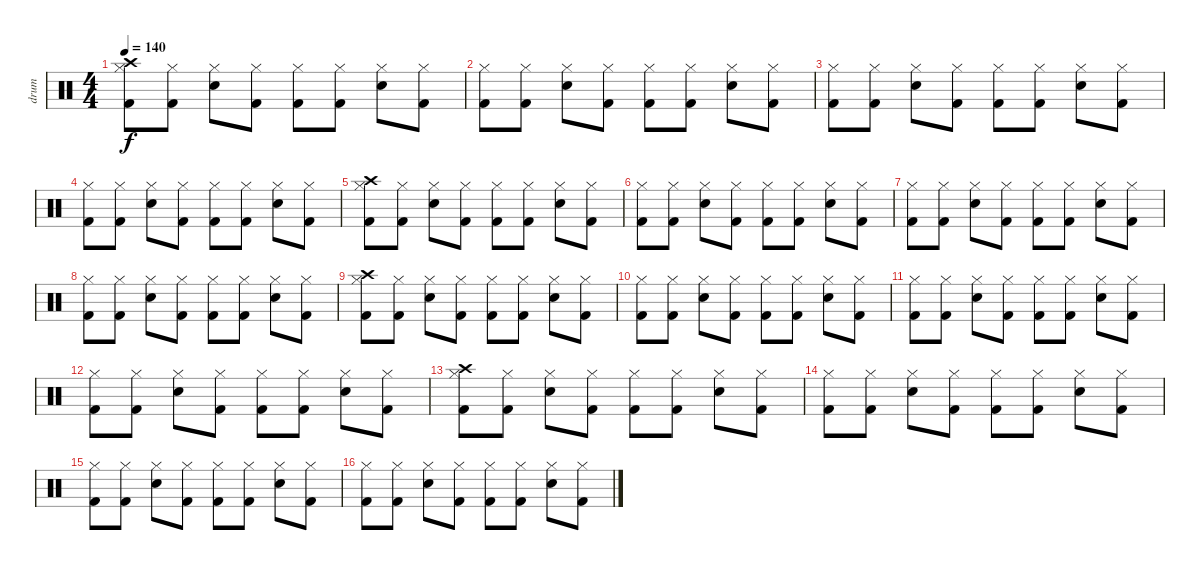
\track ("drum" "drum") {instrument percussion}
\staff {score}
\articulation defaults
\ts (4 4)
\tempo 140
\clef neutral
\ks c
("Crash high (hit)" "Hi-Hat (closed)" "Kick (hit) 2").8{dy f} ("Hi-Hat (closed)" "Kick (hit) 2").8 ("Hi-Hat (closed)" "Electric Snare (hit)").8 ("Hi-Hat (closed)" "Kick (hit) 2").8 ("Hi-Hat (closed)" "Kick (hit) 2").8 ("Hi-Hat (closed)" "Kick (hit) 2").8 ("Hi-Hat (closed)" "Electric Snare (hit)").8 ("Hi-Hat (closed)" "Kick (hit) 2").8 |
("Hi-Hat (closed)" "Kick (hit) 2").8 ("Hi-Hat (closed)" "Kick (hit) 2").8 ("Hi-Hat (closed)" "Electric Snare (hit)").8 ("Hi-Hat (closed)" "Kick (hit) 2").8 ("Hi-Hat (closed)" "Kick (hit) 2").8 ("Hi-Hat (closed)" "Kick (hit) 2").8 ("Hi-Hat (closed)" "Electric Snare (hit)").8 ("Hi-Hat (closed)" "Kick (hit) 2").8 |
("Hi-Hat (closed)" "Kick (hit) 2").8 ("Hi-Hat (closed)" "Kick (hit) 2").8 ("Hi-Hat (closed)" "Electric Snare (hit)").8 ("Hi-Hat (closed)" "Kick (hit) 2").8 ("Hi-Hat (closed)" "Kick (hit) 2").8 ("Hi-Hat (closed)" "Kick (hit) 2").8 ("Hi-Hat (closed)" "Electric Snare (hit)").8 ("Hi-Hat (closed)" "Kick (hit) 2").8 |
("Hi-Hat (closed)" "Kick (hit) 2").8 ("Hi-Hat (closed)" "Kick (hit) 2").8 ("Hi-Hat (closed)" "Electric Snare (hit)").8 ("Hi-Hat (closed)" "Kick (hit) 2").8 ("Hi-Hat (closed)" "Kick (hit) 2").8 ("Hi-Hat (closed)" "Kick (hit) 2").8 ("Hi-Hat (closed)" "Electric Snare (hit)").8 ("Hi-Hat (closed)" "Kick (hit) 2").8 |
("Crash high (hit)" "Hi-Hat (closed)" "Kick (hit) 2").8 ("Hi-Hat (closed)" "Kick (hit) 2").8 ("Hi-Hat (closed)" "Electric Snare (hit)").8 ("Hi-Hat (closed)" "Kick (hit) 2").8 ("Hi-Hat (closed)" "Kick (hit) 2").8 ("Hi-Hat (closed)" "Kick (hit) 2").8 ("Hi-Hat (closed)" "Electric Snare (hit)").8 ("Hi-Hat (closed)" "Kick (hit) 2").8 |
("Hi-Hat (closed)" "Kick (hit) 2").8 ("Hi-Hat (closed)" "Kick (hit) 2").8 ("Hi-Hat (closed)" "Electric Snare (hit)").8 ("Hi-Hat (closed)" "Kick (hit) 2").8 ("Hi-Hat (closed)" "Kick (hit) 2").8 ("Hi-Hat (closed)" "Kick (hit) 2").8 ("Hi-Hat (closed)" "Electric Snare (hit)").8 ("Hi-Hat (closed)" "Kick (hit) 2").8 |
("Hi-Hat (closed)" "Kick (hit) 2").8 ("Hi-Hat (closed)" "Kick (hit) 2").8 ("Hi-Hat (closed)" "Electric Snare (hit)").8 ("Hi-Hat (closed)" "Kick (hit) 2").8 ("Hi-Hat (closed)" "Kick (hit) 2").8 ("Hi-Hat (closed)" "Kick (hit) 2").8 ("Hi-Hat (closed)" "Electric Snare (hit)").8 ("Hi-Hat (closed)" "Kick (hit) 2").8 |
("Hi-Hat (closed)" "Kick (hit) 2").8 ("Hi-Hat (closed)" "Kick (hit) 2").8 ("Hi-Hat (closed)" "Electric Snare (hit)").8 ("Hi-Hat (closed)" "Kick (hit) 2").8 ("Hi-Hat (closed)" "Kick (hit) 2").8 ("Hi-Hat (closed)" "Kick (hit) 2").8 ("Hi-Hat (closed)" "Electric Snare (hit)").8 ("Hi-Hat (closed)" "Kick (hit) 2").8 |
("Crash high (hit)" "Hi-Hat (closed)" "Kick (hit) 2").8 ("Hi-Hat (closed)" "Kick (hit) 2").8 ("Hi-Hat (closed)" "Electric Snare (hit)").8 ("Hi-Hat (closed)" "Kick (hit) 2").8 ("Hi-Hat (closed)" "Kick (hit) 2").8 ("Hi-Hat (closed)" "Kick (hit) 2").8 ("Hi-Hat (closed)" "Electric Snare (hit)").8 ("Hi-Hat (closed)" "Kick (hit) 2").8 |
("Hi-Hat (closed)" "Kick (hit) 2").8 ("Hi-Hat (closed)" "Kick (hit) 2").8 ("Hi-Hat (closed)" "Electric Snare (hit)").8 ("Hi-Hat (closed)" "Kick (hit) 2").8 ("Hi-Hat (closed)" "Kick (hit) 2").8 ("Hi-Hat (closed)" "Kick (hit) 2").8 ("Hi-Hat (closed)" "Electric Snare (hit)").8 ("Hi-Hat (closed)" "Kick (hit) 2").8 |
("Hi-Hat (closed)" "Kick (hit) 2").8 ("Hi-Hat (closed)" "Kick (hit) 2").8 ("Hi-Hat (closed)" "Electric Snare (hit)").8 ("Hi-Hat (closed)" "Kick (hit) 2").8 ("Hi-Hat (closed)" "Kick (hit) 2").8 ("Hi-Hat (closed)" "Kick (hit) 2").8 ("Hi-Hat (closed)" "Electric Snare (hit)").8 ("Hi-Hat (closed)" "Kick (hit) 2").8 |
("Hi-Hat (closed)" "Kick (hit) 2").8 ("Hi-Hat (closed)" "Kick (hit) 2").8 ("Hi-Hat (closed)" "Electric Snare (hit)").8 ("Hi-Hat (closed)" "Kick (hit) 2").8 ("Hi-Hat (closed)" "Kick (hit) 2").8 ("Hi-Hat (closed)" "Kick (hit) 2").8 ("Hi-Hat (closed)" "Electric Snare (hit)").8 ("Hi-Hat (closed)" "Kick (hit) 2").8 |
("Crash high (hit)" "Hi-Hat (closed)" "Kick (hit) 2").8 ("Hi-Hat (closed)" "Kick (hit) 2").8 ("Hi-Hat (closed)" "Electric Snare (hit)").8 ("Hi-Hat (closed)" "Kick (hit) 2").8 ("Hi-Hat (closed)" "Kick (hit) 2").8 ("Hi-Hat (closed)" "Kick (hit) 2").8 ("Hi-Hat (closed)" "Electric Snare (hit)").8 ("Hi-Hat (closed)" "Kick (hit) 2").8 |
("Hi-Hat (closed)" "Kick (hit) 2").8 ("Hi-Hat (closed)" "Kick (hit) 2").8 ("Hi-Hat (closed)" "Electric Snare (hit)").8 ("Hi-Hat (closed)" "Kick (hit) 2").8 ("Hi-Hat (closed)" "Kick (hit) 2").8 ("Hi-Hat (closed)" "Kick (hit) 2").8 ("Hi-Hat (closed)" "Electric Snare (hit)").8 ("Hi-Hat (closed)" "Kick (hit) 2").8 |
("Hi-Hat (closed)" "Kick (hit) 2").8 ("Hi-Hat (closed)" "Kick (hit) 2").8 ("Hi-Hat (closed)" "Electric Snare (hit)").8 ("Hi-Hat (closed)" "Kick (hit) 2").8 ("Hi-Hat (closed)" "Kick (hit) 2").8 ("Hi-Hat (closed)" "Kick (hit) 2").8 ("Hi-Hat (closed)" "Electric Snare (hit)").8 ("Hi-Hat (closed)" "Kick (hit) 2").8 |
("Hi-Hat (closed)" "Kick (hit) 2").8 ("Hi-Hat (closed)" "Kick (hit) 2").8 ("Hi-Hat (closed)" "Electric Snare (hit)").8 ("Hi-Hat (closed)" "Kick (hit) 2").8 ("Hi-Hat (closed)" "Kick (hit) 2").8 ("Hi-Hat (closed)" "Kick (hit) 2").8 ("Hi-Hat (closed)" "Electric Snare (hit)").8 ("Hi-Hat (closed)" "Kick (hit) 2").8
